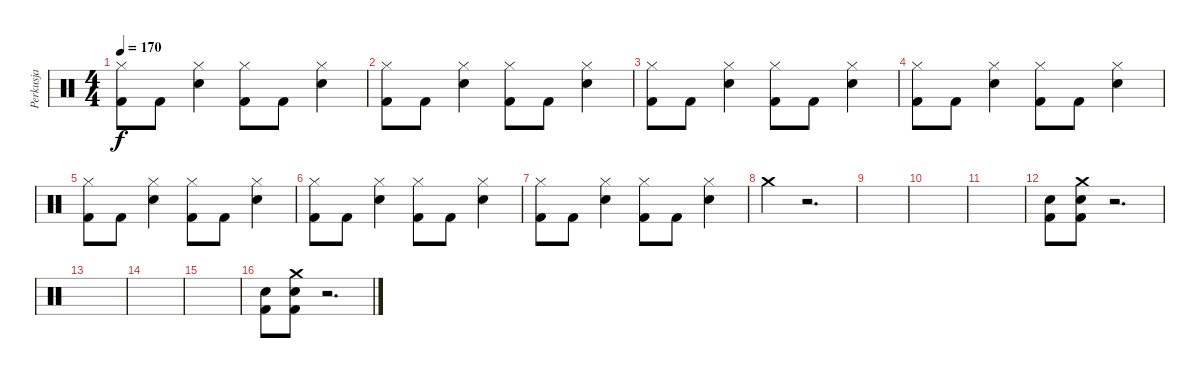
\track ("Perkusja" "Perkusja") {instrument percussion}
\staff {score}
\articulation defaults
\ts (4 4)
\tempo 170
\clef neutral
\ks c
("Hi-Hat (closed)" "Kick (hit) 2").8{dy f} "Kick (hit) 2".8 ("Hi-Hat (closed)" "Electric Snare (hit)").4 ("Hi-Hat (closed)" "Kick (hit) 2").8 "Kick (hit) 2".8 ("Hi-Hat (closed)" "Electric Snare (hit)").4 |
("Hi-Hat (closed)" "Kick (hit) 2").8 "Kick (hit) 2".8 ("Hi-Hat (closed)" "Electric Snare (hit)").4 ("Hi-Hat (closed)" "Kick (hit) 2").8 "Kick (hit) 2".8 ("Hi-Hat (closed)" "Electric Snare (hit)").4 |
("Hi-Hat (closed)" "Kick (hit) 2").8 "Kick (hit) 2".8 ("Hi-Hat (closed)" "Electric Snare (hit)").4 ("Hi-Hat (closed)" "Kick (hit) 2").8 "Kick (hit) 2".8 ("Hi-Hat (closed)" "Electric Snare (hit)").4 |
("Hi-Hat (closed)" "Kick (hit) 2").8 "Kick (hit) 2".8 ("Hi-Hat (closed)" "Electric Snare (hit)").4 ("Hi-Hat (closed)" "Kick (hit) 2").8 "Kick (hit) 2".8 ("Hi-Hat (closed)" "Electric Snare (hit)").4 |
("Hi-Hat (closed)" "Kick (hit) 2").8 "Kick (hit) 2".8 ("Hi-Hat (closed)" "Electric Snare (hit)").4 ("Hi-Hat (closed)" "Kick (hit) 2").8 "Kick (hit) 2".8 ("Hi-Hat (closed)" "Electric Snare (hit)").4 |
("Hi-Hat (closed)" "Kick (hit) 2").8 "Kick (hit) 2".8 ("Hi-Hat (closed)" "Electric Snare (hit)").4 ("Hi-Hat (closed)" "Kick (hit) 2").8 "Kick (hit) 2".8 ("Hi-Hat (closed)" "Electric Snare (hit)").4 |
("Hi-Hat (closed)" "Kick (hit) 2").8 "Kick (hit) 2".8 ("Hi-Hat (closed)" "Electric Snare (hit)").4 ("Hi-Hat (closed)" "Kick (hit) 2").8 "Kick (hit) 2".8 ("Hi-Hat (closed)" "Electric Snare (hit)").4 |
"Crash medium (hit)".4 r.2{d} |
|
|
|
("Electric Snare (hit)" "Kick (hit) 2").8 ("Crash medium (hit)" "Electric Snare (hit)" "Kick (hit) 2").8 r.2{d} |
|
|
|
("Electric Snare (hit)" "Kick (hit) 2").8 ("Crash medium (hit)" "Electric Snare (hit)" "Kick (hit) 2").8 r.2{d}
